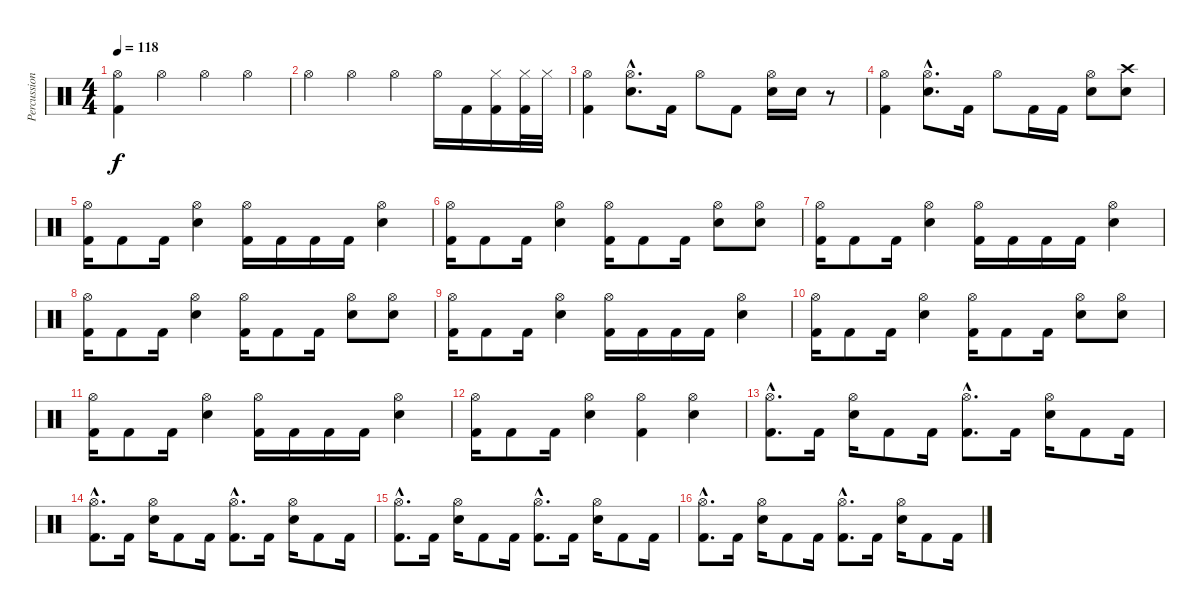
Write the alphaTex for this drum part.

\track ("Percussions" "Percussion") {instrument percussion}
\staff {score}
\articulation defaults
\ts (4 4)
\tempo 118
\clef neutral
\ks c
("Hi-Hat (open)" "Kick (hit) 2").4{dy f} "Hi-Hat (open)".4 "Hi-Hat (open)".4 "Hi-Hat (open)".4 |
"Hi-Hat (open)".4 "Hi-Hat (open)".4 "Hi-Hat (open)".4 "Hi-Hat (open)".16 "Kick (hit) 2".16 ("Hi-Hat (closed)" "Kick (hit) 2").16 ("Hi-Hat (closed)" "Kick (hit) 2").32 "Hi-Hat (closed)".32 |
("Hi-Hat (open)" "Kick (hit) 2").4 ("Hi-Hat (open)"{hac} "Electric Snare (hit)"{hac}).8{d} "Kick (hit) 2".16 "Hi-Hat (open)".8 "Kick (hit) 2".8 ("Hi-Hat (open)" "Electric Snare (hit)").16 "Electric Snare (hit)".16 r.8 |
("Hi-Hat (open)" "Kick (hit) 2").4 ("Hi-Hat (open)"{hac} "Electric Snare (hit)"{hac}).8{d} "Kick (hit) 2".16 "Hi-Hat (open)".8 "Kick (hit) 2".16 "Kick (hit) 2".16 ("Hi-Hat (open)" "Electric Snare (hit)").8 ("Crash high (hit)" "Electric Snare (hit)").8 |
("Hi-Hat (open)" "Kick (hit) 2").16 "Kick (hit) 2".8 "Kick (hit) 2".16 ("Hi-Hat (open)" "Electric Snare (hit)").4 ("Hi-Hat (open)" "Kick (hit) 2").16 "Kick (hit) 2".16 "Kick (hit) 2".16 "Kick (hit) 2".16 ("Hi-Hat (open)" "Electric Snare (hit)").4 |
("Hi-Hat (open)" "Kick (hit) 2").16 "Kick (hit) 2".8 "Kick (hit) 2".16 ("Hi-Hat (open)" "Electric Snare (hit)").4 ("Hi-Hat (open)" "Kick (hit) 2").16 "Kick (hit) 2".8 "Kick (hit) 2".16 ("Hi-Hat (open)" "Electric Snare (hit)").8 ("Hi-Hat (open)" "Electric Snare (hit)").8 |
("Hi-Hat (open)" "Kick (hit) 2").16 "Kick (hit) 2".8 "Kick (hit) 2".16 ("Hi-Hat (open)" "Electric Snare (hit)").4 ("Hi-Hat (open)" "Kick (hit) 2").16 "Kick (hit) 2".16 "Kick (hit) 2".16 "Kick (hit) 2".16 ("Hi-Hat (open)" "Electric Snare (hit)").4 |
("Hi-Hat (open)" "Kick (hit) 2").16 "Kick (hit) 2".8 "Kick (hit) 2".16 ("Hi-Hat (open)" "Electric Snare (hit)").4 ("Hi-Hat (open)" "Kick (hit) 2").16 "Kick (hit) 2".8 "Kick (hit) 2".16 ("Hi-Hat (open)" "Electric Snare (hit)").8 ("Hi-Hat (open)" "Electric Snare (hit)").8 |
("Hi-Hat (open)" "Kick (hit) 2").16 "Kick (hit) 2".8 "Kick (hit) 2".16 ("Hi-Hat (open)" "Electric Snare (hit)").4 ("Hi-Hat (open)" "Kick (hit) 2").16 "Kick (hit) 2".16 "Kick (hit) 2".16 "Kick (hit) 2".16 ("Hi-Hat (open)" "Electric Snare (hit)").4 |
("Hi-Hat (open)" "Kick (hit) 2").16 "Kick (hit) 2".8 "Kick (hit) 2".16 ("Hi-Hat (open)" "Electric Snare (hit)").4 ("Hi-Hat (open)" "Kick (hit) 2").16 "Kick (hit) 2".8 "Kick (hit) 2".16 ("Hi-Hat (open)" "Electric Snare (hit)").8 ("Hi-Hat (open)" "Electric Snare (hit)").8 |
("Hi-Hat (open)" "Kick (hit) 2").16 "Kick (hit) 2".8 "Kick (hit) 2".16 ("Hi-Hat (open)" "Electric Snare (hit)").4 ("Hi-Hat (open)" "Kick (hit) 2").16 "Kick (hit) 2".16 "Kick (hit) 2".16 "Kick (hit) 2".16 ("Hi-Hat (open)" "Electric Snare (hit)").4 |
("Hi-Hat (open)" "Kick (hit) 2").16 "Kick (hit) 2".8 "Kick (hit) 2".16 ("Hi-Hat (open)" "Electric Snare (hit)").4 ("Hi-Hat (open)" "Kick (hit) 2").4 ("Hi-Hat (open)" "Electric Snare (hit)").4 |
("Hi-Hat (open)"{hac} "Kick (hit) 2"{hac}).8{d} "Kick (hit) 2".16 ("Hi-Hat (open)" "Electric Snare (hit)").16 "Kick (hit) 2".8 "Kick (hit) 2".16 ("Hi-Hat (open)"{hac} "Kick (hit) 2"{hac}).8{d} "Kick (hit) 2".16 ("Hi-Hat (open)" "Electric Snare (hit)").16 "Kick (hit) 2".8 "Kick (hit) 2".16 |
("Hi-Hat (open)"{hac} "Kick (hit) 2"{hac}).8{d} "Kick (hit) 2".16 ("Hi-Hat (open)" "Electric Snare (hit)").16 "Kick (hit) 2".8 "Kick (hit) 2".16 ("Hi-Hat (open)"{hac} "Kick (hit) 2"{hac}).8{d} "Kick (hit) 2".16 ("Hi-Hat (open)" "Electric Snare (hit)").16 "Kick (hit) 2".8 "Kick (hit) 2".16 |
("Hi-Hat (open)"{hac} "Kick (hit) 2"{hac}).8{d} "Kick (hit) 2".16 ("Hi-Hat (open)" "Electric Snare (hit)").16 "Kick (hit) 2".8 "Kick (hit) 2".16 ("Hi-Hat (open)"{hac} "Kick (hit) 2"{hac}).8{d} "Kick (hit) 2".16 ("Hi-Hat (open)" "Electric Snare (hit)").16 "Kick (hit) 2".8 "Kick (hit) 2".16 |
("Hi-Hat (open)"{hac} "Kick (hit) 2"{hac}).8{d} "Kick (hit) 2".16 ("Hi-Hat (open)" "Electric Snare (hit)").16 "Kick (hit) 2".8 "Kick (hit) 2".16 ("Hi-Hat (open)"{hac} "Kick (hit) 2"{hac}).8{d} "Kick (hit) 2".16 ("Hi-Hat (open)" "Electric Snare (hit)").16 "Kick (hit) 2".8 "Kick (hit) 2".16
